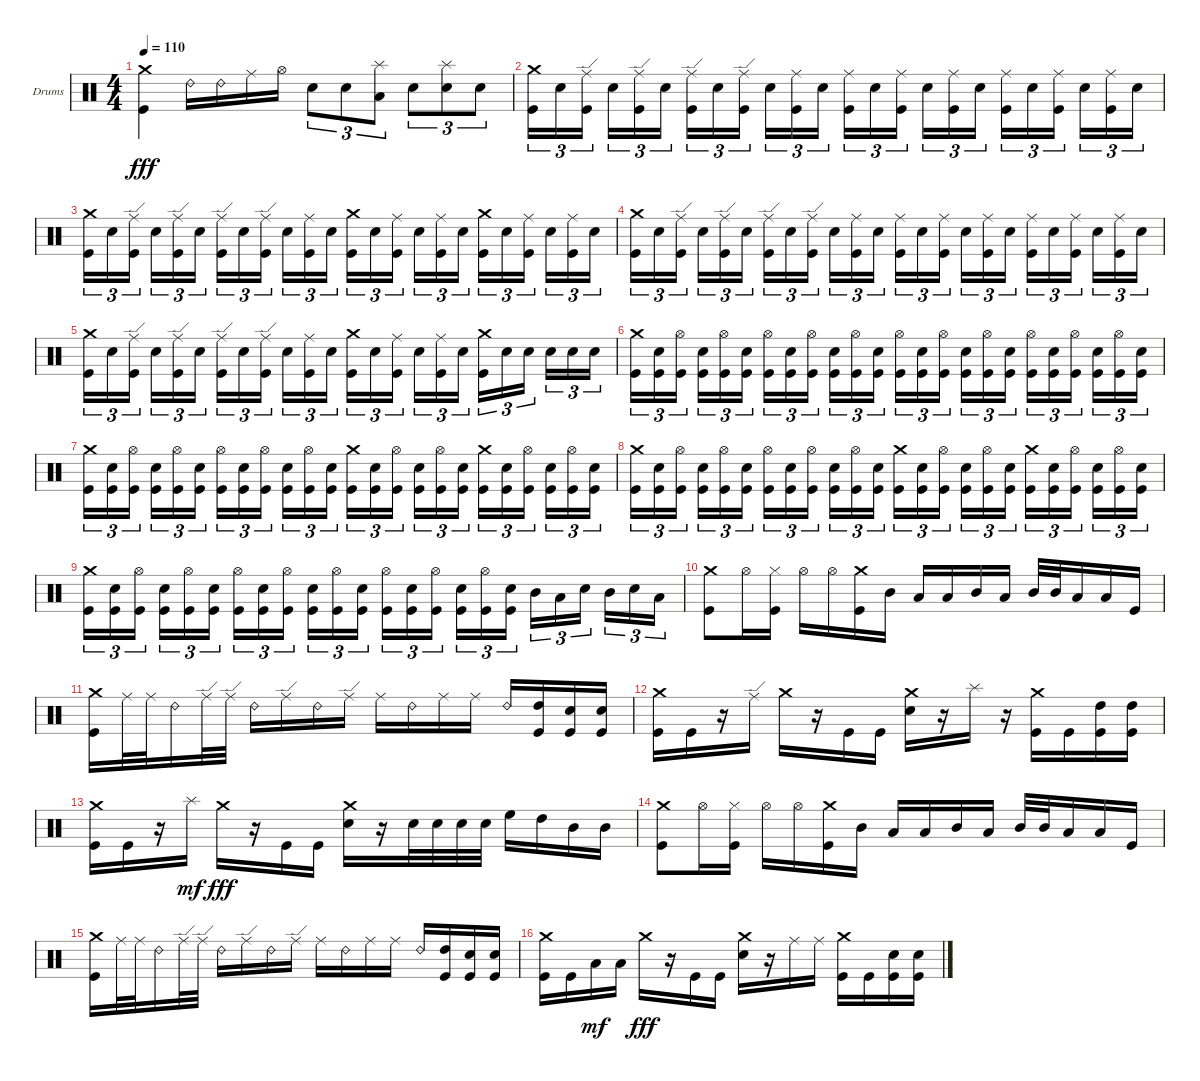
\defaultSystemsLayout 4
\bracketExtendMode groupsimilarinstruments
\firstSystemTrackNameOrientation horizontal
\otherSystemsTrackNameOrientation horizontal
\track ("Nikita Korzhov" "Drums") {instrument percussion}
\staff {score}
\articulation defaults
\ts (4 4)
\tempo 110
\clef neutral
\scale
0.333333
\ks c
("Kick (hit)" "Crash medium (hit)").4{dy fff} "Ride (bell) 2".16 "Ride (bell) 2".16 "Ride (middle)".16 "Hi-Hat (open)".16 "Snare (hit) 2".8{tu (3 2)} "Snare (hit) 2".8{tu (3 2)} ("Low Tom (hit)" "Splash (hit)").8{tu (3 2)} "Snare (hit) 2".8{tu (3 2)} ("Snare (hit) 2" "Splash (hit)").8{tu (3 2)} "Snare (hit) 2".8{tu (3 2)} |
\scale
0.333333 ("Kick (hit)" "Crash medium (hit)").16{tu (3 2)} "Snare (hit) 2".16{tu (3 2)} ("Kick (hit)" "Ride (edge)").16{tu (3 2)} "Snare (hit) 2".16{tu (3 2)} ("Kick (hit)" "Ride (edge)").16{tu (3 2)} "Snare (hit) 2".16{tu (3 2)} ("Kick (hit)" "Ride (edge)").16{tu (3 2)} "Snare (hit) 2".16{tu (3 2)} ("Kick (hit)" "Ride (edge)").16{tu (3 2)} "Snare (hit) 2".16{tu (3 2)} ("Kick (hit)" "Ride (middle)").16{tu (3 2)} "Snare (hit) 2".16{tu (3 2)} ("Kick (hit)" "Ride (middle)").16{tu (3 2)} "Snare (hit) 2".16{tu (3 2)} ("Kick (hit)" "Ride (middle)").16{tu (3 2)} "Snare (hit) 2".16{tu (3 2)} ("Kick (hit)" "Ride (middle)").16{tu (3 2)} "Snare (hit) 2".16{tu (3 2)} ("Kick (hit)" "Ride (middle)").16{tu (3 2)} "Snare (hit) 2".16{tu (3 2)} ("Kick (hit)" "Ride (middle)").16{tu (3 2)} "Snare (hit) 2".16{tu (3 2)} ("Kick (hit)" "Ride (middle)").16{tu (3 2)} "Snare (hit) 2".16{tu (3 2)} |
\scale
0.333333 ("Kick (hit)" "Crash medium (hit)").16{tu (3 2)} "Snare (hit) 2".16{tu (3 2)} ("Kick (hit)" "Ride (edge)").16{tu (3 2)} "Snare (hit) 2".16{tu (3 2)} ("Kick (hit)" "Ride (edge)").16{tu (3 2)} "Snare (hit) 2".16{tu (3 2)} ("Kick (hit)" "Ride (edge)").16{tu (3 2)} "Snare (hit) 2".16{tu (3 2)} ("Kick (hit)" "Ride (edge)").16{tu (3 2)} "Snare (hit) 2".16{tu (3 2)} ("Kick (hit)" "Ride (middle)").16{tu (3 2)} "Snare (hit) 2".16{tu (3 2)} ("Kick (hit)" "Crash medium (hit)").16{tu (3 2)} "Snare (hit) 2".16{tu (3 2)} ("Kick (hit)" "Ride (middle)").16{tu (3 2)} "Snare (hit) 2".16{tu (3 2)} ("Kick (hit)" "Ride (middle)").16{tu (3 2)} "Snare (hit) 2".16{tu (3 2)} ("Kick (hit)" "Crash medium (hit)").16{tu (3 2)} "Snare (hit) 2".16{tu (3 2)} ("Kick (hit)" "Ride (middle)").16{tu (3 2)} "Snare (hit) 2".16{tu (3 2)} ("Kick (hit)" "Ride (middle)").16{tu (3 2)} "Snare (hit) 2".16{tu (3 2)} |
\scale
0.333333 ("Kick (hit)" "Crash medium (hit)").16{tu (3 2)} "Snare (hit) 2".16{tu (3 2)} ("Kick (hit)" "Ride (edge)").16{tu (3 2)} "Snare (hit) 2".16{tu (3 2)} ("Kick (hit)" "Ride (edge)").16{tu (3 2)} "Snare (hit) 2".16{tu (3 2)} ("Kick (hit)" "Ride (edge)").16{tu (3 2)} "Snare (hit) 2".16{tu (3 2)} ("Kick (hit)" "Ride (edge)").16{tu (3 2)} "Snare (hit) 2".16{tu (3 2)} ("Kick (hit)" "Ride (middle)").16{tu (3 2)} "Snare (hit) 2".16{tu (3 2)} ("Kick (hit)" "Ride (middle)").16{tu (3 2)} "Snare (hit) 2".16{tu (3 2)} ("Kick (hit)" "Ride (middle)").16{tu (3 2)} "Snare (hit) 2".16{tu (3 2)} ("Kick (hit)" "Ride (middle)").16{tu (3 2)} "Snare (hit) 2".16{tu (3 2)} ("Kick (hit)" "Ride (middle)").16{tu (3 2)} "Snare (hit) 2".16{tu (3 2)} ("Kick (hit)" "Ride (middle)").16{tu (3 2)} "Snare (hit) 2".16{tu (3 2)} ("Kick (hit)" "Ride (middle)").16{tu (3 2)} "Snare (hit) 2".16{tu (3 2)} |
\scale
0.333333 ("Kick (hit)" "Crash medium (hit)").16{tu (3 2)} "Snare (hit) 2".16{tu (3 2)} ("Kick (hit)" "Ride (edge)").16{tu (3 2)} "Snare (hit) 2".16{tu (3 2)} ("Kick (hit)" "Ride (edge)").16{tu (3 2)} "Snare (hit) 2".16{tu (3 2)} ("Kick (hit)" "Ride (edge)").16{tu (3 2)} "Snare (hit) 2".16{tu (3 2)} ("Kick (hit)" "Ride (edge)").16{tu (3 2)} "Snare (hit) 2".16{tu (3 2)} ("Kick (hit)" "Ride (middle)").16{tu (3 2)} "Snare (hit) 2".16{tu (3 2)} ("Kick (hit)" "Crash medium (hit)").16{tu (3 2)} "Snare (hit) 2".16{tu (3 2)} ("Kick (hit)" "Ride (middle)").16{tu (3 2)} "Snare (hit) 2".16{tu (3 2)} ("Kick (hit)" "Ride (middle)").16{tu (3 2)} "Snare (hit) 2".16{tu (3 2)} ("Kick (hit)" "Crash medium (hit)").16{tu (3 2)} "Snare (hit) 2".16{tu (3 2)} "Snare (hit) 2".16{tu (3 2)} "Snare (hit) 2".16{tu (3 2)} "Snare (hit) 2".16{tu (3 2)} "Snare (hit) 2".16{tu (3 2)} |
\scale
0.333333 ("Kick (hit)" "Crash medium (hit)").16{tu (3 2)} ("Snare (hit) 2" "Kick (hit)").16{tu (3 2)} ("Kick (hit)" "Hi-Hat (open)").16{tu (3 2)} ("Snare (hit) 2" "Kick (hit)").16{tu (3 2)} ("Kick (hit)" "Hi-Hat (open)").16{tu (3 2)} ("Snare (hit) 2" "Kick (hit)").16{tu (3 2)} ("Kick (hit)" "Hi-Hat (open)").16{tu (3 2)} ("Snare (hit) 2" "Kick (hit)").16{tu (3 2)} ("Kick (hit)" "Hi-Hat (open)").16{tu (3 2)} ("Snare (hit) 2" "Kick (hit)").16{tu (3 2)} ("Kick (hit)" "Hi-Hat (open)").16{tu (3 2)} ("Snare (hit) 2" "Kick (hit)").16{tu (3 2)} ("Kick (hit)" "Hi-Hat (open)").16{tu (3 2)} ("Snare (hit) 2" "Kick (hit)").16{tu (3 2)} ("Kick (hit)" "Hi-Hat (open)").16{tu (3 2)} ("Snare (hit) 2" "Kick (hit)").16{tu (3 2)} ("Kick (hit)" "Hi-Hat (open)").16{tu (3 2)} ("Snare (hit) 2" "Kick (hit)").16{tu (3 2)} ("Kick (hit)" "Hi-Hat (open)").16{tu (3 2)} ("Snare (hit) 2" "Kick (hit)").16{tu (3 2)} ("Kick (hit)" "Hi-Hat (open)").16{tu (3 2)} ("Snare (hit) 2" "Kick (hit)").16{tu (3 2)} ("Kick (hit)" "Hi-Hat (open)").16{tu (3 2)} ("Snare (hit) 2" "Kick (hit)").16{tu (3 2)} |
\scale
0.333333 ("Kick (hit)" "Crash medium (hit)").16{tu (3 2)} ("Snare (hit) 2" "Kick (hit)").16{tu (3 2)} ("Kick (hit)" "Hi-Hat (open)").16{tu (3 2)} ("Snare (hit) 2" "Kick (hit)").16{tu (3 2)} ("Kick (hit)" "Hi-Hat (open)").16{tu (3 2)} ("Snare (hit) 2" "Kick (hit)").16{tu (3 2)} ("Kick (hit)" "Hi-Hat (open)").16{tu (3 2)} ("Snare (hit) 2" "Kick (hit)").16{tu (3 2)} ("Hi-Hat (open)" "Kick (hit)").16{tu (3 2)} ("Snare (hit) 2" "Kick (hit)").16{tu (3 2)} ("Kick (hit)" "Hi-Hat (open)").16{tu (3 2)} ("Snare (hit) 2" "Kick (hit)").16{tu (3 2)} ("Kick (hit)" "Crash medium (hit)").16{tu (3 2)} ("Snare (hit) 2" "Kick (hit)").16{tu (3 2)} ("Kick (hit)" "Hi-Hat (open)").16{tu (3 2)} ("Snare (hit) 2" "Kick (hit)").16{tu (3 2)} ("Kick (hit)" "Hi-Hat (open)").16{tu (3 2)} ("Snare (hit) 2" "Kick (hit)").16{tu (3 2)} ("Kick (hit)" "Crash medium (hit)").16{tu (3 2)} ("Snare (hit) 2" "Kick (hit)").16{tu (3 2)} ("Kick (hit)" "Hi-Hat (open)").16{tu (3 2)} ("Snare (hit) 2" "Kick (hit)").16{tu (3 2)} ("Kick (hit)" "Hi-Hat (open)").16{tu (3 2)} ("Snare (hit) 2" "Kick (hit)").16{tu (3 2)} |
\scale
0.333333 ("Kick (hit)" "Crash medium (hit)").16{tu (3 2)} ("Snare (hit) 2" "Kick (hit)").16{tu (3 2)} ("Kick (hit)" "Hi-Hat (open)").16{tu (3 2)} ("Snare (hit) 2" "Kick (hit)").16{tu (3 2)} ("Kick (hit)" "Hi-Hat (open)").16{tu (3 2)} ("Snare (hit) 2" "Kick (hit)").16{tu (3 2)} ("Kick (hit)" "Hi-Hat (open)").16{tu (3 2)} ("Snare (hit) 2" "Kick (hit)").16{tu (3 2)} ("Kick (hit)" "Hi-Hat (open)").16{tu (3 2)} ("Snare (hit) 2" "Kick (hit)").16{tu (3 2)} ("Kick (hit)" "Hi-Hat (open)").16{tu (3 2)} ("Snare (hit) 2" "Kick (hit)").16{tu (3 2)} ("Kick (hit)" "Crash medium (hit)").16{tu (3 2)} ("Snare (hit) 2" "Kick (hit)").16{tu (3 2)} ("Kick (hit)" "Hi-Hat (open)").16{tu (3 2)} ("Snare (hit) 2" "Kick (hit)").16{tu (3 2)} ("Kick (hit)" "Hi-Hat (open)").16{tu (3 2)} ("Snare (hit) 2" "Kick (hit)").16{tu (3 2)} ("Kick (hit)" "Crash medium (hit)").16{tu (3 2)} ("Snare (hit) 2" "Kick (hit)").16{tu (3 2)} ("Kick (hit)" "Hi-Hat (open)").16{tu (3 2)} ("Snare (hit) 2" "Kick (hit)").16{tu (3 2)} ("Kick (hit)" "Hi-Hat (open)").16{tu (3 2)} ("Snare (hit) 2" "Kick (hit)").16{tu (3 2)} |
\scale
0.333333 ("Kick (hit)" "Crash medium (hit)").16{tu (3 2)} ("Snare (hit) 2" "Kick (hit)").16{tu (3 2)} ("Kick (hit)" "Hi-Hat (open)").16{tu (3 2)} ("Snare (hit) 2" "Kick (hit)").16{tu (3 2)} ("Kick (hit)" "Hi-Hat (open)").16{tu (3 2)} ("Snare (hit) 2" "Kick (hit)").16{tu (3 2)} ("Kick (hit)" "Hi-Hat (open)").16{tu (3 2)} ("Snare (hit) 2" "Kick (hit)").16{tu (3 2)} ("Kick (hit)" "Hi-Hat (open)").16{tu (3 2)} ("Snare (hit) 2" "Kick (hit)").16{tu (3 2)} ("Kick (hit)" "Hi-Hat (open)").16{tu (3 2)} ("Snare (hit) 2" "Kick (hit)").16{tu (3 2)} ("Kick (hit)" "Hi-Hat (open)").16{tu (3 2)} ("Snare (hit) 2" "Kick (hit)").16{tu (3 2)} ("Kick (hit)" "Hi-Hat (open)").16{tu (3 2)} ("Snare (hit) 2" "Kick (hit)").16{tu (3 2)} ("Kick (hit)" "Hi-Hat (open)").16{tu (3 2)} ("Snare (hit) 2" "Kick (hit)").16{tu (3 2)} "Mid Tom (hit)".16{tu (3 2)} "Low Tom (hit)".16{tu (3 2)} "Snare (hit) 2".16{tu (3 2)} "Mid Tom (hit)".16{tu (3 2)} "Snare (hit) 2".16{tu (3 2)} "Low Tom (hit)".16{tu (3 2)} |
\scale
0.333333 ("Kick (hit)" "Crash medium (hit)").8 "Hi-Hat (open)".16 ("Hi-Hat (closed)" "Kick (hit)").16 "Hi-Hat (open)".16 "Hi-Hat (open)".16 ("Crash medium (hit)" "Kick (hit)").16 "Mid Tom (hit)".16 "Low Tom (hit)".16 "Low Tom (hit)".16 "Mid Tom (hit)".16 "Low Tom (hit)".16 "Mid Tom (hit)".32 "Mid Tom (hit)".32 "Low Tom (hit)".16 "Low Tom (hit)".16 "Kick (hit)".16 |
\scale
0.333333 ("Kick (hit)" "Crash medium (hit)").16 "Ride (middle)".32 "Ride (middle)".32 "Ride (bell) 2".16 "Ride (edge)".32 "Ride (edge)".32 "Ride (bell) 2".16 "Ride (edge)".16 "Ride (bell) 2".16 "Ride (edge)".16 "Ride (middle)".16 "Ride (bell) 2".16 "Ride (middle)".16 "Ride (middle)".16 "Ride (bell) 2".16 ("Kick (hit)" "High Tom (hit)").16 ("Snare (hit) 2" "Kick (hit)").16 ("Snare (hit) 2" "Kick (hit)").16 |
\scale
0.333333 ("Kick (hit)" "Crash medium (hit)").16 "Kick (hit)".16 r.16 "Ride (edge)".16 "Crash medium (hit)".16 r.16 "Kick (hit)".16 "Kick (hit)".16 ("Snare (hit) 2" "Crash medium (hit)").16 r.16 "Splash (hit)".16 r.16 ("Crash medium (hit)" "Kick (hit)").16 "Kick (hit)".16 ("Kick (hit)" "High Tom (hit)").16 ("Kick (hit)" "High Tom (hit)").16 |
\scale
0.333333 ("Kick (hit)" "Crash medium (hit)").16 "Kick (hit)".16 r.16 "Splash (hit)".16{dy mf} "Crash medium (hit)".16{dy fff} r.16 "Kick (hit)".16 "Kick (hit)".16 ("Snare (hit) 2" "Crash medium (hit)").16 r.16 "Snare (hit) 2".32 "Snare (hit) 2".32 "Snare (hit) 2".32 "Snare (hit) 2".32 "High Floor Tom (hit)".16 "High Tom (hit)".16 "Mid Tom (hit)".16 "Mid Tom (hit)".16 |
\scale
0.333333 ("Kick (hit)" "Crash medium (hit)").8 "Hi-Hat (open)".16 ("Hi-Hat (closed)" "Kick (hit)").16 "Hi-Hat (open)".16 "Hi-Hat (open)".16 ("Crash medium (hit)" "Kick (hit)").16 "Mid Tom (hit)".16 "Low Tom (hit)".16 "Low Tom (hit)".16 "Mid Tom (hit)".16 "Low Tom (hit)".16 "Mid Tom (hit)".32 "Mid Tom (hit)".32 "Low Tom (hit)".16 "Low Tom (hit)".16 "Kick (hit)".16 |
("Kick (hit)" "Crash medium (hit)").16 "Ride (middle)".32 "Ride (middle)".32 "Ride (bell) 2".16 "Ride (edge)".32 "Ride (edge)".32 "Ride (bell) 2".16 "Ride (edge)".16 "Ride (bell) 2".16 "Ride (edge)".16 "Ride (middle)".16 "Ride (bell) 2".16 "Ride (middle)".16 "Ride (middle)".16 "Ride (bell) 2".16 ("Kick (hit)" "High Tom (hit)").16 ("Snare (hit) 2" "Kick (hit)").16 ("Snare (hit) 2" "Kick (hit)").16 |
\scale
0.333333 ("Kick (hit)" "Crash medium (hit)").16 "Kick (hit)".16 "Low Tom (hit)".16{dy mf} "Low Tom (hit)".16 "Crash medium (hit)".16{dy fff} r.16 "Kick (hit)".16 "Kick (hit)".16 ("Snare (hit) 2" "Crash medium (hit)").16 r.16 "Ride (middle)".16 "Ride (middle)".16 ("Crash medium (hit)" "Kick (hit)").16 "Kick (hit)".16 ("Kick (hit)" "Snare (hit) 2").16 ("Kick (hit)" "Snare (hit) 2").16
